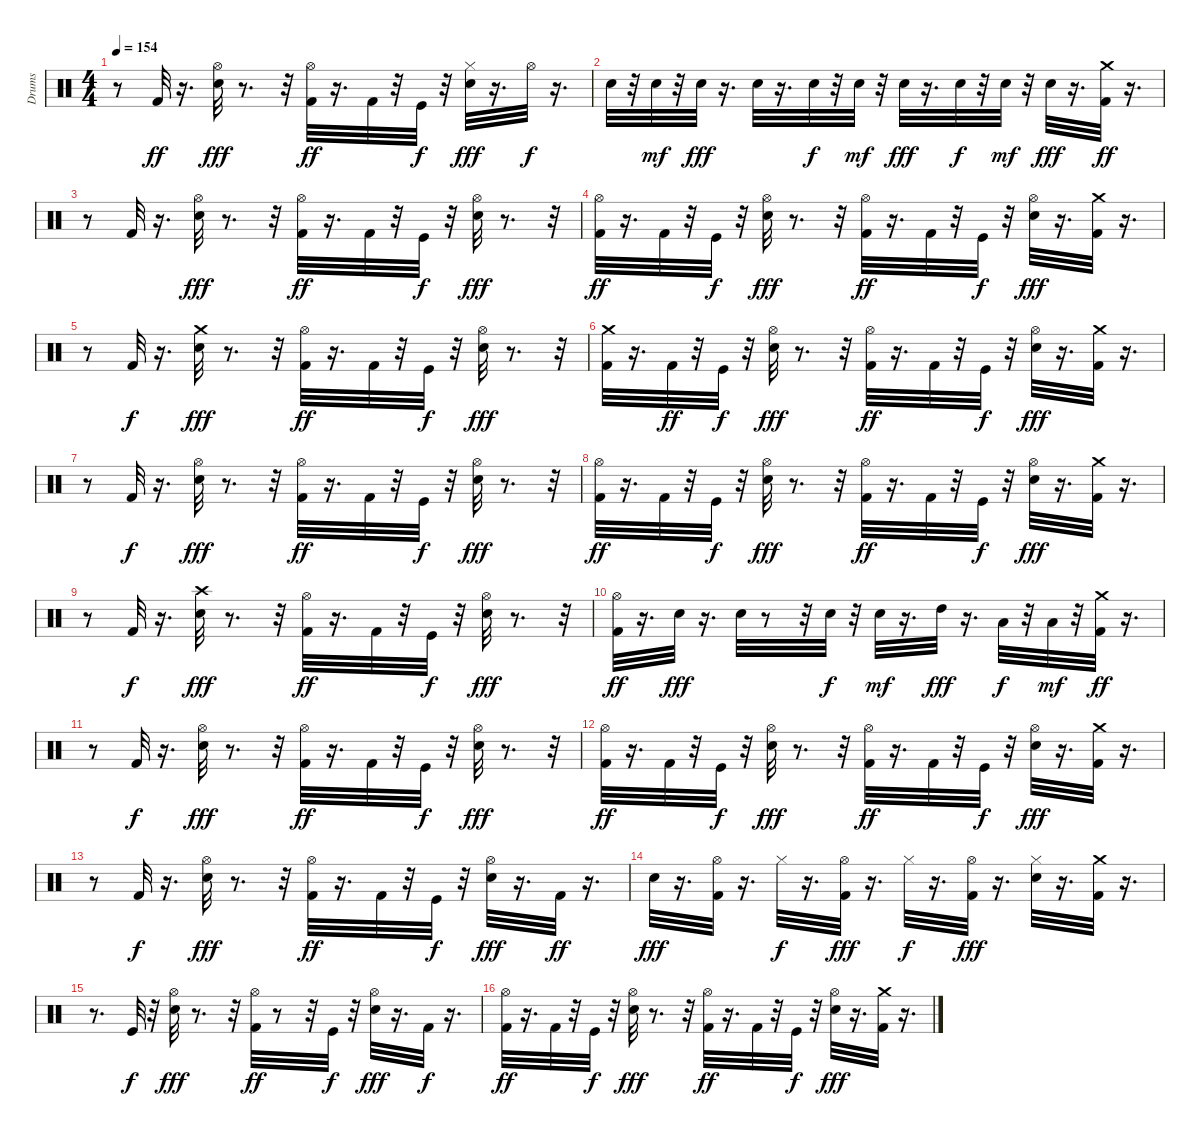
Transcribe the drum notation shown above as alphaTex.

\track ("Drums" "Drums") {instrument percussion}
\staff {score}
\articulation defaults
\ts (4 4)
\tempo 154
\clef neutral
\ks c
r.8{dy ff} "Kick (hit) 2".32 r.16{d} ("Snare (hit) 2" "Hi-Hat (open)").32{dy fff} r.8{d} r.32 ("Kick (hit) 2" "Hi-Hat (open)").32{dy ff} r.16{d} "Kick (hit) 2".32 r.32 "Kick (hit)".32{dy f} r.32 ("Snare (hit) 2" "Hi-Hat (closed)").32{dy fff} r.16{d} "Hi-Hat (open)".32{dy f} r.16{d} |
"Snare (hit) 2".32 r.32 "Snare (hit) 2".32{dy mf} r.32 "Snare (hit) 2".32{dy fff} r.16{d} "Snare (hit) 2".32 r.16{d} "Snare (hit) 2".32{dy f} r.32 "Snare (hit) 2".32{dy mf} r.32 "Snare (hit) 2".32{dy fff} r.16{d} "Snare (hit) 2".32{dy f} r.32 "Snare (hit) 2".32{dy mf} r.32 "Snare (hit) 2".32{dy fff} r.16{d} ("Crash medium (hit)" "Kick (hit) 2").32{dy ff} r.16{d} |
r.8 "Kick (hit) 2".32 r.16{d} ("Snare (hit) 2" "Hi-Hat (open)").32{dy fff} r.8{d} r.32 ("Kick (hit) 2" "Hi-Hat (open)").32{dy ff} r.16{d} "Kick (hit) 2".32 r.32 "Kick (hit)".32{dy f} r.32 ("Snare (hit) 2" "Hi-Hat (open)").32{dy fff} r.8{d} r.32 |
("Kick (hit) 2" "Hi-Hat (open)").32{dy ff} r.16{d} "Kick (hit) 2".32 r.32 "Kick (hit)".32{dy f} r.32 ("Snare (hit) 2" "Hi-Hat (open)").32{dy fff} r.8{d} r.32 ("Kick (hit) 2" "Hi-Hat (open)").32{dy ff} r.16{d} "Kick (hit) 2".32 r.32 "Kick (hit)".32{dy f} r.32 ("Snare (hit) 2" "Hi-Hat (open)").32{dy fff} r.16{d} ("Kick (hit) 2" "Crash medium (hit)").32 r.16{d} |
r.8 "Kick (hit) 2".32{dy f} r.16{d} ("Snare (hit) 2" "Crash medium (hit)").32{dy fff} r.8{d} r.32 ("Kick (hit) 2" "Hi-Hat (open)").32{dy ff} r.16{d} "Kick (hit) 2".32 r.32 "Kick (hit)".32{dy f} r.32 ("Snare (hit) 2" "Hi-Hat (open)").32{dy fff} r.8{d} r.32 |
("Kick (hit) 2" "Crash medium (hit)").32 r.16{d} "Kick (hit) 2".32{dy ff} r.32 "Kick (hit)".32{dy f} r.32 ("Snare (hit) 2" "Hi-Hat (open)").32{dy fff} r.8{d} r.32 ("Kick (hit) 2" "Hi-Hat (open)").32{dy ff} r.16{d} "Kick (hit) 2".32 r.32 "Kick (hit)".32{dy f} r.32 ("Snare (hit) 2" "Hi-Hat (open)").32{dy fff} r.16{d} ("Kick (hit) 2" "Crash medium (hit)").32 r.16{d} |
r.8 "Kick (hit) 2".32{dy f} r.16{d} ("Snare (hit) 2" "Hi-Hat (open)").32{dy fff} r.8{d} r.32 ("Kick (hit) 2" "Hi-Hat (open)").32{dy ff} r.16{d} "Kick (hit) 2".32 r.32 "Kick (hit)".32{dy f} r.32 ("Snare (hit) 2" "Hi-Hat (open)").32{dy fff} r.8{d} r.32 |
("Kick (hit) 2" "Hi-Hat (open)").32{dy ff} r.16{d} "Kick (hit) 2".32 r.32 "Kick (hit)".32{dy f} r.32 ("Snare (hit) 2" "Hi-Hat (open)").32{dy fff} r.8{d} r.32 ("Kick (hit) 2" "Hi-Hat (open)").32{dy ff} r.16{d} "Kick (hit) 2".32 r.32 "Kick (hit)".32{dy f} r.32 ("Snare (hit) 2" "Hi-Hat (open)").32{dy fff} r.16{d} ("Kick (hit) 2" "Crash medium (hit)").32 r.16{d} |
r.8 "Kick (hit) 2".32{dy f} r.16{d} ("Snare (hit) 2" "Crash high (hit)").32{dy fff} r.8{d} r.32 ("Kick (hit) 2" "Hi-Hat (open)").32{dy ff} r.16{d} "Kick (hit) 2".32 r.32 "Kick (hit)".32{dy f} r.32 ("Snare (hit) 2" "Hi-Hat (open)").32{dy fff} r.8{d} r.32 |
("Kick (hit) 2" "Hi-Hat (open)").32{dy ff} r.16{d} "Snare (hit) 2".32{dy fff} r.16{d} "Snare (hit) 2".32 r.8 r.32 "Snare (hit) 2".32{dy f} r.32 "Snare (hit) 2".32{dy mf} r.16{d} "High Tom (hit)".32{dy fff} r.16{d} "Low Tom (hit)".32{dy f} r.32 "Low Tom (hit)".32{dy mf} r.32 ("Crash medium (hit)" "Kick (hit) 2").32{dy ff} r.16{d} |
r.8 "Kick (hit) 2".32{dy f} r.16{d} ("Snare (hit) 2" "Hi-Hat (open)").32{dy fff} r.8{d} r.32 ("Kick (hit) 2" "Hi-Hat (open)").32{dy ff} r.16{d} "Kick (hit) 2".32 r.32 "Kick (hit)".32{dy f} r.32 ("Snare (hit) 2" "Hi-Hat (open)").32{dy fff} r.8{d} r.32 |
("Kick (hit) 2" "Hi-Hat (open)").32{dy ff} r.16{d} "Kick (hit) 2".32 r.32 "Kick (hit)".32{dy f} r.32 ("Snare (hit) 2" "Hi-Hat (open)").32{dy fff} r.8{d} r.32 ("Kick (hit) 2" "Hi-Hat (open)").32{dy ff} r.16{d} "Kick (hit) 2".32 r.32 "Kick (hit)".32{dy f} r.32 ("Snare (hit) 2" "Hi-Hat (open)").32{dy fff} r.16{d} ("Kick (hit) 2" "Crash medium (hit)").32 r.16{d} |
r.8 "Kick (hit) 2".32{dy f} r.16{d} ("Snare (hit) 2" "Hi-Hat (open)").32{dy fff} r.8{d} r.32 ("Kick (hit) 2" "Hi-Hat (open)").32{dy ff} r.16{d} "Kick (hit) 2".32 r.32 "Kick (hit)".32{dy f} r.32 ("Snare (hit) 2" "Hi-Hat (open)").32{dy fff} r.16{d} "Kick (hit) 2".32{dy ff} r.16{d} |
"Snare (hit) 2".32{dy fff} r.16{d} ("Kick (hit) 2" "Hi-Hat (open)").32 r.16{d} "Hi-Hat (closed)".32{dy f} r.16{d} ("Kick (hit) 2" "Hi-Hat (open)").32{dy fff} r.16{d} "Hi-Hat (closed)".32{dy f} r.16{d} ("Kick (hit) 2" "Hi-Hat (open)").32{dy fff} r.16{d} ("Snare (hit) 2" "Hi-Hat (closed)").32 r.16{d} ("Kick (hit) 2" "Crash medium (hit)").32 r.16{d} |
r.8{d} "Kick (hit)".32{dy f} r.32 ("Snare (hit) 2" "Hi-Hat (open)").32{dy fff} r.8{d} r.32 ("Kick (hit) 2" "Hi-Hat (open)").32{dy ff} r.8 r.32 "Kick (hit)".32{dy f} r.32 ("Snare (hit) 2" "Hi-Hat (open)").32{dy fff} r.16{d} "Kick (hit) 2".32{dy f} r.16{d} |
("Kick (hit) 2" "Hi-Hat (open)").32{dy ff} r.16{d} "Kick (hit) 2".32 r.32 "Kick (hit)".32{dy f} r.32 ("Snare (hit) 2" "Hi-Hat (open)").32{dy fff} r.8{d} r.32 ("Kick (hit) 2" "Hi-Hat (open)").32{dy ff} r.16{d} "Kick (hit) 2".32 r.32 "Kick (hit)".32{dy f} r.32 ("Snare (hit) 2" "Hi-Hat (open)").32{dy fff} r.16{d} ("Kick (hit) 2" "Crash medium (hit)").32 r.16{d}
